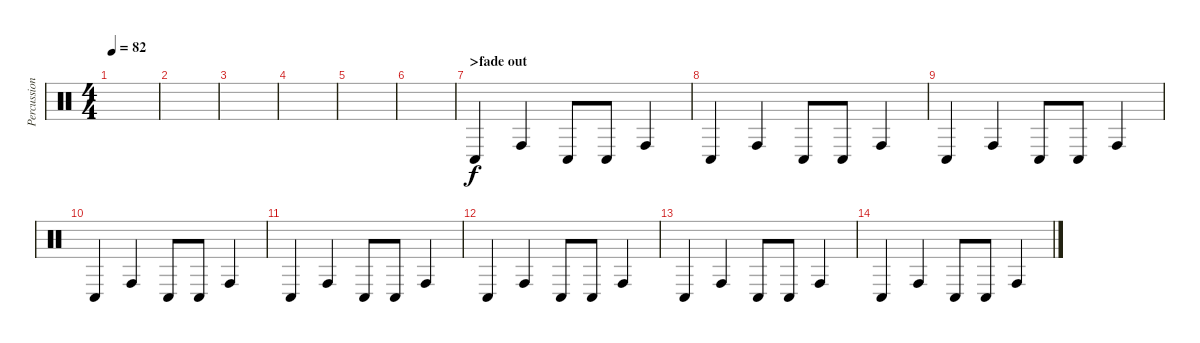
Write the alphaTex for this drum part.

\track ("Percussion" "Percussion") {instrument percussion}
\staff {score}
\articulation defaults
\ts (4 4)
\tempo 82
\clef neutral
\ks c
|
|
|
|
|
|
\section ("" ">fade out")
"Conga low (hit)".4{volume 13} "Conga high (hit)".4 "Conga low (hit)".8 "Conga low (hit)".8 "Conga high (hit)".4 |
"Conga low (hit)".4{volume 13} "Conga high (hit)".4 "Conga low (hit)".8 "Conga low (hit)".8 "Conga high (hit)".4 |
"Conga low (hit)".4{volume 13} "Conga high (hit)".4 "Conga low (hit)".8 "Conga low (hit)".8 "Conga high (hit)".4 |
"Conga low (hit)".4{volume 13} "Conga high (hit)".4 "Conga low (hit)".8 "Conga low (hit)".8 "Conga high (hit)".4 |
"Conga low (hit)".4{volume 13} "Conga high (hit)".4 "Conga low (hit)".8 "Conga low (hit)".8 "Conga high (hit)".4 |
"Conga low (hit)".4{volume 13} "Conga high (hit)".4 "Conga low (hit)".8 "Conga low (hit)".8 "Conga high (hit)".4 |
"Conga low (hit)".4{volume 13} "Conga high (hit)".4 "Conga low (hit)".8 "Conga low (hit)".8 "Conga high (hit)".4 |
"Conga low (hit)".4{volume 13} "Conga high (hit)".4 "Conga low (hit)".8 "Conga low (hit)".8 "Conga high (hit)".4
